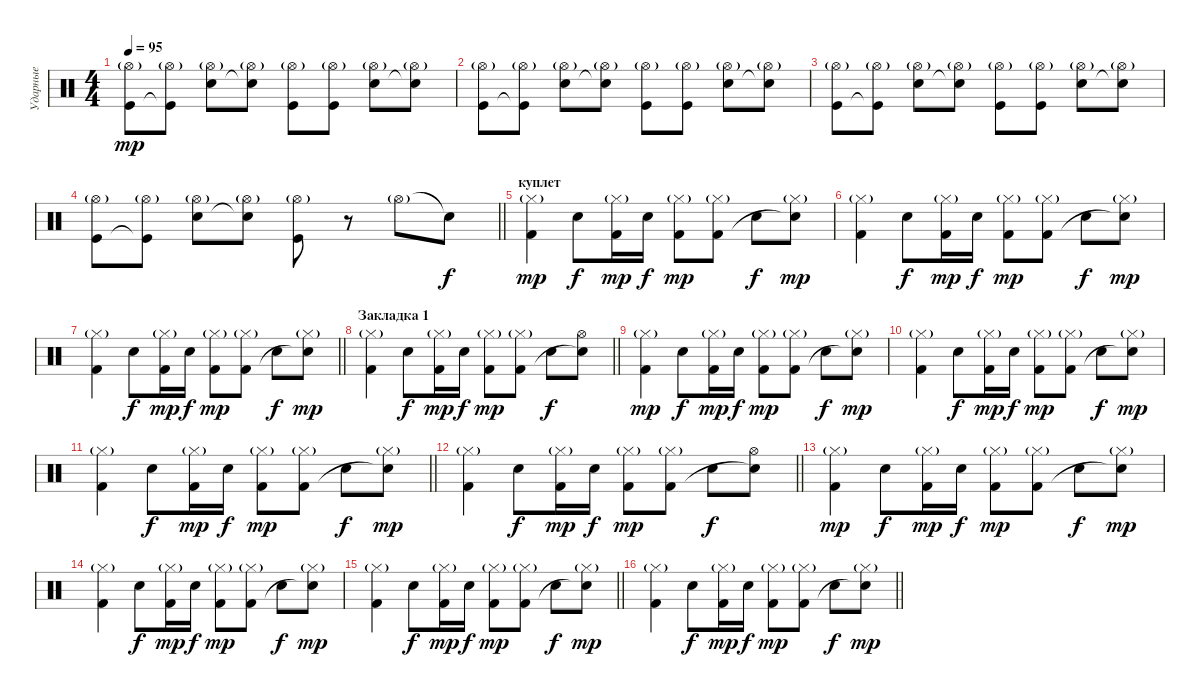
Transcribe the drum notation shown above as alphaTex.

\track ("Ударные" "Ударные") {instrument percussion}
\staff {score}
\articulation defaults
\ts (4 4)
\tempo 95
\clef neutral
\ks c
("Hi-Hat (open)"{g} "Kick (hit)").8{dy mp} ("Hi-Hat (open)"{g} "Kick (hit)"{t}).8 ("Hi-Hat (open)"{g} "Snare (hit) 2").8 ("Hi-Hat (open)"{g} "Snare (hit) 2"{t}).8 ("Hi-Hat (open)"{g} "Kick (hit)").8 ("Hi-Hat (open)"{g} "Kick (hit)").8 ("Hi-Hat (open)"{g} "Snare (hit) 2").8 ("Hi-Hat (open)"{g} "Snare (hit) 2"{t}).8 |
("Hi-Hat (open)"{g} "Kick (hit)").8 ("Hi-Hat (open)"{g} "Kick (hit)"{t}).8 ("Hi-Hat (open)"{g} "Snare (hit) 2").8 ("Hi-Hat (open)"{g} "Snare (hit) 2"{t}).8 ("Hi-Hat (open)"{g} "Kick (hit)").8 ("Hi-Hat (open)"{g} "Kick (hit)").8 ("Hi-Hat (open)"{g} "Snare (hit) 2").8 ("Hi-Hat (open)"{g} "Snare (hit) 2"{t}).8 |
("Hi-Hat (open)"{g} "Kick (hit)").8 ("Hi-Hat (open)"{g} "Kick (hit)"{t}).8 ("Hi-Hat (open)"{g} "Snare (hit) 2").8 ("Hi-Hat (open)"{g} "Snare (hit) 2"{t}).8 ("Hi-Hat (open)"{g} "Kick (hit)").8 ("Hi-Hat (open)"{g} "Kick (hit)").8 ("Hi-Hat (open)"{g} "Snare (hit) 2").8 ("Hi-Hat (open)"{g} "Snare (hit) 2"{t}).8 |
\barLineRight lightlight
("Hi-Hat (open)"{g} "Kick (hit)").8 ("Hi-Hat (open)"{g} "Kick (hit)"{t}).8 ("Hi-Hat (open)"{g} "Snare (hit) 2").8 ("Hi-Hat (open)"{g} "Snare (hit) 2"{t}).8 ("Hi-Hat (open)"{g} "Kick (hit)").8 r.8 "Hi-Hat (open)"{g}.8 "Snare (hit)"{t}.8{dy f} |
\section ("" "куплет")
("Hi-Hat (closed)"{g} "Kick (hit) 2").4{dy mp} "Electric Snare (hit)".8{dy f} ("Hi-Hat (closed)"{g} "Kick (hit) 2").16{dy mp} "Electric Snare (hit)".16{dy f} ("Hi-Hat (closed)"{g} "Kick (hit) 2").8{dy mp} ("Hi-Hat (closed)"{g} "Kick (hit) 2").8 "Electric Snare (hit)".8{dy f} ("Hi-Hat (closed)"{g} "Snare (hit)"{t}).8{dy mp} |
("Hi-Hat (closed)"{g} "Kick (hit) 2").4 "Electric Snare (hit)".8{dy f} ("Hi-Hat (closed)"{g} "Kick (hit) 2").16{dy mp} "Electric Snare (hit)".16{dy f} ("Hi-Hat (closed)"{g} "Kick (hit) 2").8{dy mp} ("Hi-Hat (closed)"{g} "Kick (hit) 2").8 "Electric Snare (hit)".8{dy f} ("Hi-Hat (closed)"{g} "Snare (hit)"{t}).8{dy mp} |
\barLineRight lightlight
("Hi-Hat (closed)"{g} "Kick (hit) 2").4 "Electric Snare (hit)".8{dy f} ("Hi-Hat (closed)"{g} "Kick (hit) 2").16{dy mp} "Electric Snare (hit)".16{dy f} ("Hi-Hat (closed)"{g} "Kick (hit) 2").8{dy mp} ("Hi-Hat (closed)"{g} "Kick (hit) 2").8 "Electric Snare (hit)".8{dy f} ("Hi-Hat (closed)"{g} "Snare (hit)"{t}).8{dy mp} |
\section ("" "Закладка 1")
\barLineRight lightlight
("Hi-Hat (closed)"{g} "Kick (hit) 2").4 "Electric Snare (hit)".8{dy f} ("Hi-Hat (closed)"{g} "Kick (hit) 2").16{dy mp} "Electric Snare (hit)".16{dy f} ("Hi-Hat (closed)"{g} "Kick (hit) 2").8{dy mp} ("Hi-Hat (closed)"{g} "Kick (hit) 2").8 "Electric Snare (hit)".8{dy f} ("Hi-Hat (open)" "Snare (hit)"{t}).8 |
("Hi-Hat (closed)"{g} "Kick (hit) 2").4{dy mp} "Electric Snare (hit)".8{dy f} ("Hi-Hat (closed)"{g} "Kick (hit) 2").16{dy mp} "Electric Snare (hit)".16{dy f} ("Hi-Hat (closed)"{g} "Kick (hit) 2").8{dy mp} ("Hi-Hat (closed)"{g} "Kick (hit) 2").8 "Electric Snare (hit)".8{dy f} ("Hi-Hat (closed)"{g} "Snare (hit)"{t}).8{dy mp} |
("Hi-Hat (closed)"{g} "Kick (hit) 2").4 "Electric Snare (hit)".8{dy f} ("Hi-Hat (closed)"{g} "Kick (hit) 2").16{dy mp} "Electric Snare (hit)".16{dy f} ("Hi-Hat (closed)"{g} "Kick (hit) 2").8{dy mp} ("Hi-Hat (closed)"{g} "Kick (hit) 2").8 "Electric Snare (hit)".8{dy f} ("Hi-Hat (closed)"{g} "Snare (hit)"{t}).8{dy mp} |
\barLineRight lightlight
("Hi-Hat (closed)"{g} "Kick (hit) 2").4 "Electric Snare (hit)".8{dy f} ("Hi-Hat (closed)"{g} "Kick (hit) 2").16{dy mp} "Electric Snare (hit)".16{dy f} ("Hi-Hat (closed)"{g} "Kick (hit) 2").8{dy mp} ("Hi-Hat (closed)"{g} "Kick (hit) 2").8 "Electric Snare (hit)".8{dy f} ("Hi-Hat (closed)"{g} "Snare (hit)"{t}).8{dy mp} |
\barLineRight lightlight
("Hi-Hat (closed)"{g} "Kick (hit) 2").4 "Electric Snare (hit)".8{dy f} ("Hi-Hat (closed)"{g} "Kick (hit) 2").16{dy mp} "Electric Snare (hit)".16{dy f} ("Hi-Hat (closed)"{g} "Kick (hit) 2").8{dy mp} ("Hi-Hat (closed)"{g} "Kick (hit) 2").8 "Electric Snare (hit)".8{dy f} ("Hi-Hat (open)" "Snare (hit)"{t}).8 |
("Hi-Hat (closed)"{g} "Kick (hit) 2").4{dy mp} "Electric Snare (hit)".8{dy f} ("Hi-Hat (closed)"{g} "Kick (hit) 2").16{dy mp} "Electric Snare (hit)".16{dy f} ("Hi-Hat (closed)"{g} "Kick (hit) 2").8{dy mp} ("Hi-Hat (closed)"{g} "Kick (hit) 2").8 "Electric Snare (hit)".8{dy f} ("Hi-Hat (closed)"{g} "Snare (hit)"{t}).8{dy mp} |
("Hi-Hat (closed)"{g} "Kick (hit) 2").4 "Electric Snare (hit)".8{dy f} ("Hi-Hat (closed)"{g} "Kick (hit) 2").16{dy mp} "Electric Snare (hit)".16{dy f} ("Hi-Hat (closed)"{g} "Kick (hit) 2").8{dy mp} ("Hi-Hat (closed)"{g} "Kick (hit) 2").8 "Electric Snare (hit)".8{dy f} ("Hi-Hat (closed)"{g} "Snare (hit)"{t}).8{dy mp} |
\barLineRight lightlight
("Hi-Hat (closed)"{g} "Kick (hit) 2").4 "Electric Snare (hit)".8{dy f} ("Hi-Hat (closed)"{g} "Kick (hit) 2").16{dy mp} "Electric Snare (hit)".16{dy f} ("Hi-Hat (closed)"{g} "Kick (hit) 2").8{dy mp} ("Hi-Hat (closed)"{g} "Kick (hit) 2").8 "Electric Snare (hit)".8{dy f} ("Hi-Hat (closed)"{g} "Snare (hit)"{t}).8{dy mp} |
\barLineRight lightlight
("Hi-Hat (closed)"{g} "Kick (hit) 2").4 "Electric Snare (hit)".8{dy f} ("Hi-Hat (closed)"{g} "Kick (hit) 2").16{dy mp} "Electric Snare (hit)".16{dy f} ("Hi-Hat (closed)"{g} "Kick (hit) 2").8{dy mp} ("Hi-Hat (closed)"{g} "Kick (hit) 2").8 "Electric Snare (hit)".8{dy f} ("Hi-Hat (closed)"{g} "Snare (hit)"{t}).8{dy mp}
